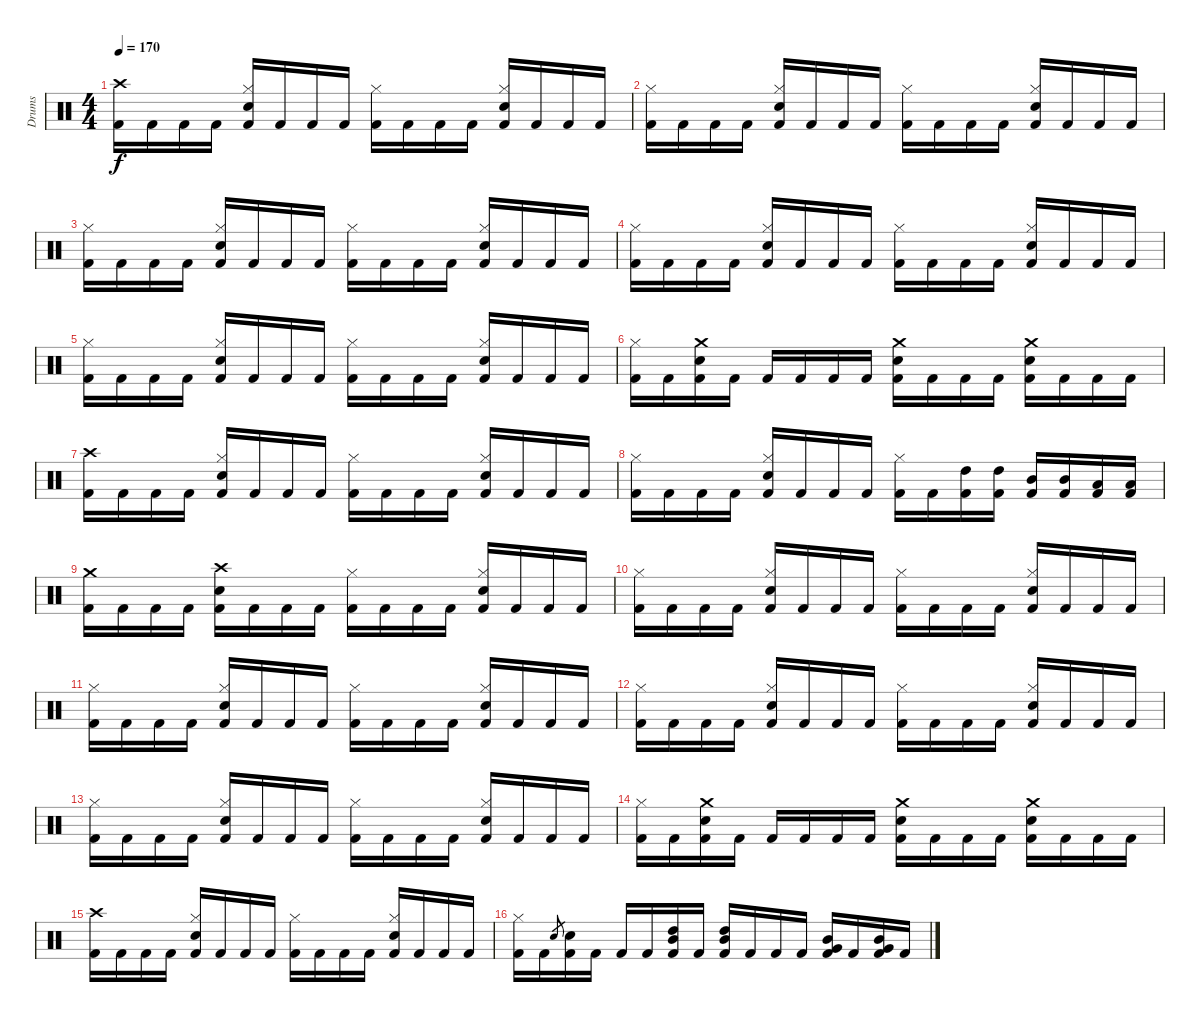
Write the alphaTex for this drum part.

\track ("Drums" "Drums") {instrument percussion}
\staff {score}
\articulation defaults
\ts (4 4)
\tempo 170
\clef neutral
\ks c
("Crash high (hit)" "Kick (hit) 2").16{dy f} "Kick (hit) 2".16 "Kick (hit) 2".16 "Kick (hit) 2".16 ("Hi-Hat (closed)" "Snare (hit) 2" "Kick (hit) 2").16 "Kick (hit) 2".16 "Kick (hit) 2".16 "Kick (hit) 2".16 ("Hi-Hat (closed)" "Kick (hit) 2").16 "Kick (hit) 2".16 "Kick (hit) 2".16 "Kick (hit) 2".16 ("Hi-Hat (closed)" "Snare (hit) 2" "Kick (hit) 2").16 "Kick (hit) 2".16 "Kick (hit) 2".16 "Kick (hit) 2".16 |
("Hi-Hat (closed)" "Kick (hit) 2").16 "Kick (hit) 2".16 "Kick (hit) 2".16 "Kick (hit) 2".16 ("Hi-Hat (closed)" "Snare (hit) 2" "Kick (hit) 2").16 "Kick (hit) 2".16 "Kick (hit) 2".16 "Kick (hit) 2".16 ("Hi-Hat (closed)" "Kick (hit) 2").16 "Kick (hit) 2".16 "Kick (hit) 2".16 "Kick (hit) 2".16 ("Hi-Hat (closed)" "Snare (hit) 2" "Kick (hit) 2").16 "Kick (hit) 2".16 "Kick (hit) 2".16 "Kick (hit) 2".16 |
("Hi-Hat (closed)" "Kick (hit) 2").16 "Kick (hit) 2".16 "Kick (hit) 2".16 "Kick (hit) 2".16 ("Hi-Hat (closed)" "Snare (hit) 2" "Kick (hit) 2").16 "Kick (hit) 2".16 "Kick (hit) 2".16 "Kick (hit) 2".16 ("Hi-Hat (closed)" "Kick (hit) 2").16 "Kick (hit) 2".16 "Kick (hit) 2".16 "Kick (hit) 2".16 ("Hi-Hat (closed)" "Snare (hit) 2" "Kick (hit) 2").16 "Kick (hit) 2".16 "Kick (hit) 2".16 "Kick (hit) 2".16 |
("Hi-Hat (closed)" "Kick (hit) 2").16 "Kick (hit) 2".16 "Kick (hit) 2".16 "Kick (hit) 2".16 ("Hi-Hat (closed)" "Snare (hit) 2" "Kick (hit) 2").16 "Kick (hit) 2".16 "Kick (hit) 2".16 "Kick (hit) 2".16 ("Hi-Hat (closed)" "Kick (hit) 2").16 "Kick (hit) 2".16 "Kick (hit) 2".16 "Kick (hit) 2".16 ("Hi-Hat (closed)" "Snare (hit) 2" "Kick (hit) 2").16 "Kick (hit) 2".16 "Kick (hit) 2".16 "Kick (hit) 2".16 |
("Hi-Hat (closed)" "Kick (hit) 2").16 "Kick (hit) 2".16 "Kick (hit) 2".16 "Kick (hit) 2".16 ("Hi-Hat (closed)" "Snare (hit) 2" "Kick (hit) 2").16 "Kick (hit) 2".16 "Kick (hit) 2".16 "Kick (hit) 2".16 ("Hi-Hat (closed)" "Kick (hit) 2").16 "Kick (hit) 2".16 "Kick (hit) 2".16 "Kick (hit) 2".16 ("Hi-Hat (closed)" "Snare (hit) 2" "Kick (hit) 2").16 "Kick (hit) 2".16 "Kick (hit) 2".16 "Kick (hit) 2".16 |
("Hi-Hat (closed)" "Kick (hit) 2").16 "Kick (hit) 2".16 ("Crash medium (hit)" "Snare (hit) 2" "Kick (hit) 2").16 "Kick (hit) 2".16 "Kick (hit) 2".16 "Kick (hit) 2".16 "Kick (hit) 2".16 "Kick (hit) 2".16 ("Crash medium (hit)" "Snare (hit) 2" "Kick (hit) 2").16 "Kick (hit) 2".16 "Kick (hit) 2".16 "Kick (hit) 2".16 ("Crash medium (hit)" "Snare (hit) 2" "Kick (hit) 2").16 "Kick (hit) 2".16 "Kick (hit) 2".16 "Kick (hit) 2".16 |
("Crash high (hit)" "Kick (hit) 2").16 "Kick (hit) 2".16 "Kick (hit) 2".16 "Kick (hit) 2".16 ("Hi-Hat (closed)" "Snare (hit) 2" "Kick (hit) 2").16 "Kick (hit) 2".16 "Kick (hit) 2".16 "Kick (hit) 2".16 ("Hi-Hat (closed)" "Kick (hit) 2").16 "Kick (hit) 2".16 "Kick (hit) 2".16 "Kick (hit) 2".16 ("Hi-Hat (closed)" "Snare (hit) 2" "Kick (hit) 2").16 "Kick (hit) 2".16 "Kick (hit) 2".16 "Kick (hit) 2".16 |
("Hi-Hat (closed)" "Kick (hit) 2").16 "Kick (hit) 2".16 "Kick (hit) 2".16 "Kick (hit) 2".16 ("Hi-Hat (closed)" "Snare (hit) 2" "Kick (hit) 2").16 "Kick (hit) 2".16 "Kick (hit) 2".16 "Kick (hit) 2".16 ("Hi-Hat (closed)" "Kick (hit) 2").16 "Kick (hit) 2".16 ("High Tom (hit)" "Kick (hit) 2").16 ("High Tom (hit)" "Kick (hit) 2").16 ("Mid Tom (hit)" "Kick (hit) 2").16 ("Mid Tom (hit)" "Kick (hit) 2").16 ("Low Tom (hit)" "Kick (hit) 2").16 ("Low Tom (hit)" "Kick (hit) 2").16 |
("Crash medium (hit)" "Kick (hit) 2").16 "Kick (hit) 2".16 "Kick (hit) 2".16 "Kick (hit) 2".16 ("Crash high (hit)" "Snare (hit) 2" "Kick (hit) 2").16 "Kick (hit) 2".16 "Kick (hit) 2".16 "Kick (hit) 2".16 ("Hi-Hat (closed)" "Kick (hit) 2").16 "Kick (hit) 2".16 "Kick (hit) 2".16 "Kick (hit) 2".16 ("Hi-Hat (closed)" "Snare (hit) 2" "Kick (hit) 2").16 "Kick (hit) 2".16 "Kick (hit) 2".16 "Kick (hit) 2".16 |
("Hi-Hat (closed)" "Kick (hit) 2").16 "Kick (hit) 2".16 "Kick (hit) 2".16 "Kick (hit) 2".16 ("Hi-Hat (closed)" "Snare (hit) 2" "Kick (hit) 2").16 "Kick (hit) 2".16 "Kick (hit) 2".16 "Kick (hit) 2".16 ("Hi-Hat (closed)" "Kick (hit) 2").16 "Kick (hit) 2".16 "Kick (hit) 2".16 "Kick (hit) 2".16 ("Hi-Hat (closed)" "Snare (hit) 2" "Kick (hit) 2").16 "Kick (hit) 2".16 "Kick (hit) 2".16 "Kick (hit) 2".16 |
("Hi-Hat (closed)" "Kick (hit) 2").16 "Kick (hit) 2".16 "Kick (hit) 2".16 "Kick (hit) 2".16 ("Hi-Hat (closed)" "Snare (hit) 2" "Kick (hit) 2").16 "Kick (hit) 2".16 "Kick (hit) 2".16 "Kick (hit) 2".16 ("Hi-Hat (closed)" "Kick (hit) 2").16 "Kick (hit) 2".16 "Kick (hit) 2".16 "Kick (hit) 2".16 ("Hi-Hat (closed)" "Snare (hit) 2" "Kick (hit) 2").16 "Kick (hit) 2".16 "Kick (hit) 2".16 "Kick (hit) 2".16 |
("Hi-Hat (closed)" "Kick (hit) 2").16 "Kick (hit) 2".16 "Kick (hit) 2".16 "Kick (hit) 2".16 ("Hi-Hat (closed)" "Snare (hit) 2" "Kick (hit) 2").16 "Kick (hit) 2".16 "Kick (hit) 2".16 "Kick (hit) 2".16 ("Hi-Hat (closed)" "Kick (hit) 2").16 "Kick (hit) 2".16 "Kick (hit) 2".16 "Kick (hit) 2".16 ("Hi-Hat (closed)" "Snare (hit) 2" "Kick (hit) 2").16 "Kick (hit) 2".16 "Kick (hit) 2".16 "Kick (hit) 2".16 |
("Hi-Hat (closed)" "Kick (hit) 2").16 "Kick (hit) 2".16 "Kick (hit) 2".16 "Kick (hit) 2".16 ("Hi-Hat (closed)" "Snare (hit) 2" "Kick (hit) 2").16 "Kick (hit) 2".16 "Kick (hit) 2".16 "Kick (hit) 2".16 ("Hi-Hat (closed)" "Kick (hit) 2").16 "Kick (hit) 2".16 "Kick (hit) 2".16 "Kick (hit) 2".16 ("Hi-Hat (closed)" "Snare (hit) 2" "Kick (hit) 2").16 "Kick (hit) 2".16 "Kick (hit) 2".16 "Kick (hit) 2".16 |
("Hi-Hat (closed)" "Kick (hit) 2").16 "Kick (hit) 2".16 ("Crash medium (hit)" "Snare (hit) 2" "Kick (hit) 2").16 "Kick (hit) 2".16 "Kick (hit) 2".16 "Kick (hit) 2".16 "Kick (hit) 2".16 "Kick (hit) 2".16 ("Crash medium (hit)" "Snare (hit) 2" "Kick (hit) 2").16 "Kick (hit) 2".16 "Kick (hit) 2".16 "Kick (hit) 2".16 ("Crash medium (hit)" "Snare (hit) 2" "Kick (hit) 2").16 "Kick (hit) 2".16 "Kick (hit) 2".16 "Kick (hit) 2".16 |
("Crash high (hit)" "Kick (hit) 2").16 "Kick (hit) 2".16 "Kick (hit) 2".16 "Kick (hit) 2".16 ("Hi-Hat (closed)" "Snare (hit) 2" "Kick (hit) 2").16 "Kick (hit) 2".16 "Kick (hit) 2".16 "Kick (hit) 2".16 ("Hi-Hat (closed)" "Kick (hit) 2").16 "Kick (hit) 2".16 "Kick (hit) 2".16 "Kick (hit) 2".16 ("Hi-Hat (closed)" "Snare (hit) 2" "Kick (hit) 2").16 "Kick (hit) 2".16 "Kick (hit) 2".16 "Kick (hit) 2".16 |
("Hi-Hat (closed)" "Kick (hit) 2").16 "Kick (hit) 2".16 "Snare (hit) 2".8{gr} ("Snare (hit) 2" "Kick (hit) 2").16 "Kick (hit) 2".16 "Kick (hit) 2".16 "Kick (hit) 2".16 ("High Tom (hit)" "Mid Tom (hit)" "Kick (hit) 2").16 "Kick (hit) 2".16 ("High Tom (hit)" "Mid Tom (hit)" "Kick (hit) 2").16 "Kick (hit) 2".16 "Kick (hit) 2".16 "Kick (hit) 2".16 ("Mid Tom (hit)" "Very Low Tom (hit)" "Kick (hit) 2").16 "Kick (hit) 2".16 ("Mid Tom (hit)" "Very Low Tom (hit)" "Kick (hit) 2").16 "Kick (hit) 2".16
